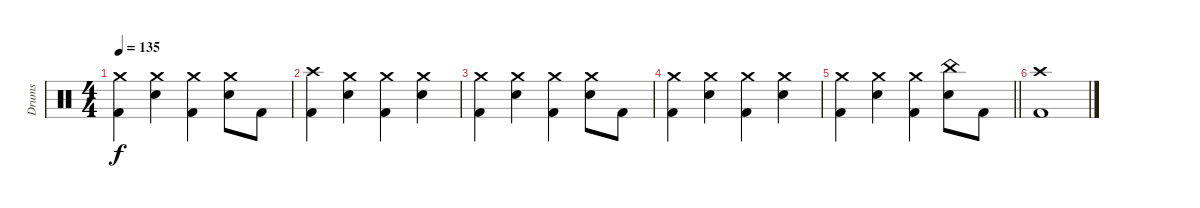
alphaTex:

\track ("Drums" "Drums") {instrument percussion}
\staff {score}
\articulation defaults
\ts (4 4)
\tempo 135
\clef neutral
\ks c
("Crash medium (hit)" "Kick (hit) 2").4{dy f} ("Crash medium (hit)" "Electric Snare (hit)").4 ("Crash medium (hit)" "Kick (hit) 2").4 ("Crash medium (hit)" "Electric Snare (hit)").8 "Kick (hit) 2".8 |
("Crash high (hit)" "Kick (hit) 2").4 ("Crash medium (hit)" "Electric Snare (hit)").4 ("Crash medium (hit)" "Kick (hit) 2").4 ("Crash medium (hit)" "Electric Snare (hit)").4 |
("Crash medium (hit)" "Kick (hit) 2").4 ("Crash medium (hit)" "Electric Snare (hit)").4 ("Crash medium (hit)" "Kick (hit) 2").4 ("Crash medium (hit)" "Electric Snare (hit)").8 "Kick (hit) 2".8 |
("Crash medium (hit)" "Kick (hit) 2").4 ("Crash medium (hit)" "Electric Snare (hit)").4 ("Crash medium (hit)" "Kick (hit) 2").4 ("Crash medium (hit)" "Electric Snare (hit)").4 |
\barLineRight lightlight
("Crash medium (hit)" "Kick (hit) 2").4 ("Crash medium (hit)" "Electric Snare (hit)").4 ("Crash medium (hit)" "Kick (hit) 2").4 ("China (hit)" "Electric Snare (hit)").8 "Kick (hit) 2".8 |
("Crash high (hit)" "Kick (hit) 2").1
